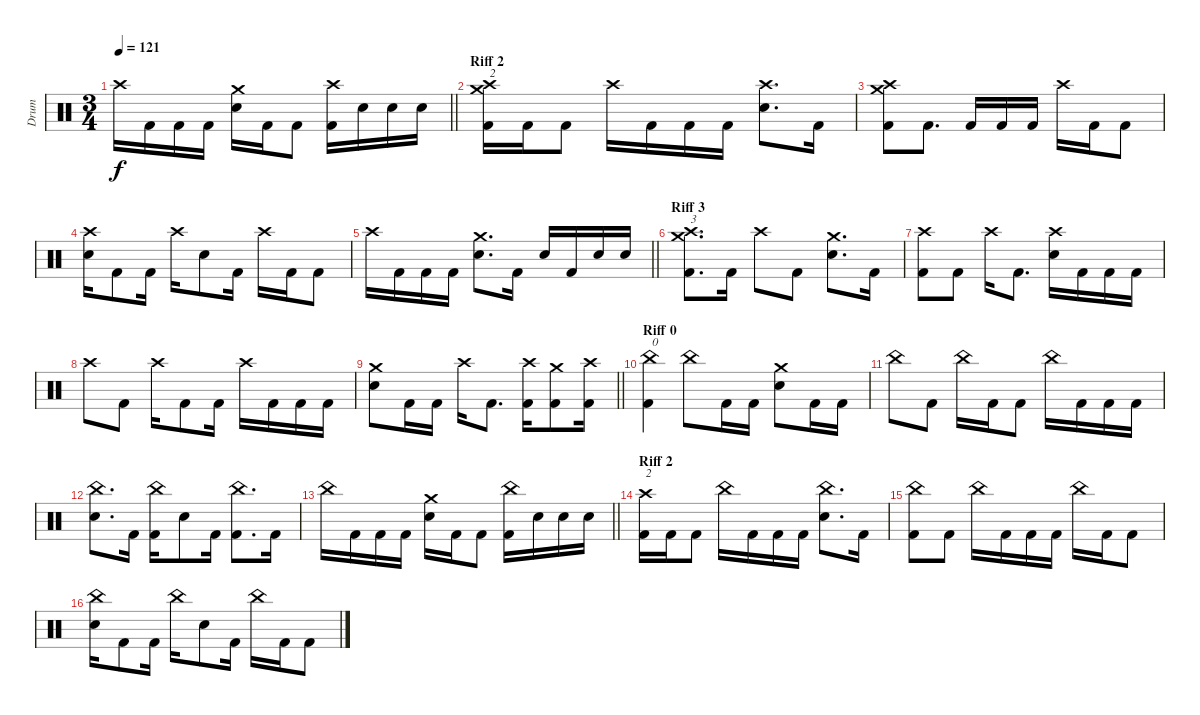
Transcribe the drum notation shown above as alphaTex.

\track ("Drum" "Drum") {instrument percussion}
\staff
\articulation defaults
\ts (3 4)
\tempo 121
\clef neutral
\barLineRight lightlight
\ks c "Crash high (hit)".16{dy f} "Kick (hit) 2".16 "Kick (hit) 2".16 "Kick (hit) 2".16
("Electric Snare (hit)" "Crash medium (hit)").16 "Kick (hit) 2".16 "Kick (hit) 2".8 ("Kick (hit) 2" "Crash high (hit)").16 "Electric Snare (hit)".16 "Electric Snare (hit)".16 "Electric Snare (hit)".16 |
\section ("" "Riff 2")
("Kick (hit) 2" "Crash high (hit)" "Crash medium (hit)").16{txt "2"} "Kick (hit) 2".16 "Kick (hit) 2".8 "Crash high (hit)".16 "Kick (hit) 2".16 "Kick (hit) 2".16 "Kick (hit) 2".16 ("Electric Snare (hit)" "Crash high (hit)").8{d} "Kick (hit) 2".16 |
("Kick (hit) 2" "Crash high (hit)" "Crash medium (hit)").8 "Kick (hit) 2".8{d} "Kick (hit) 2".16 "Kick (hit) 2".16 "Kick (hit) 2".16 "Crash high (hit)".16 "Kick (hit) 2".16 "Kick (hit) 2".8 |
("Electric Snare (hit)" "Crash high (hit)").16 "Kick (hit) 2".8 "Kick (hit) 2".16 "Crash high (hit)".16 "Electric Snare (hit)".8 "Kick (hit) 2".16 "Crash high (hit)".16 "Kick (hit) 2".16 "Kick (hit) 2".8 |
\barLineRight lightlight "Crash high (hit)".16 "Kick (hit) 2".16 "Kick (hit) 2".16 "Kick (hit) 2".16
("Electric Snare (hit)" "Crash medium (hit)").8{d} "Kick (hit) 2".16 "Electric Snare (hit)".16 "Kick (hit) 2".16 "Electric Snare (hit)".16 "Electric Snare (hit)".16 |
\section ("" "Riff 3")
("Kick (hit) 2" "Crash medium (hit)" "Crash high (hit)").8{d txt "3"} "Kick (hit) 2".16 "Crash high (hit)".8 "Kick (hit) 2".8 ("Electric Snare (hit)" "Crash medium (hit)").8{d} "Kick (hit) 2".16 |
("Kick (hit) 2" "Crash high (hit)").8 "Kick (hit) 2".8 "Crash high (hit)".16 "Kick (hit) 2".8{d} ("Electric Snare (hit)" "Crash high (hit)").16 "Kick (hit) 2".16 "Kick (hit) 2".16 "Kick (hit) 2".16 |
"Crash high (hit)".8 "Kick (hit) 2".8 "Crash high (hit)".16 "Kick (hit) 2".8 "Kick (hit) 2".16 "Crash high (hit)".16 "Kick (hit) 2".16 "Kick (hit) 2".16 "Kick (hit) 2".16 |
\barLineRight lightlight
("Electric Snare (hit)" "Crash medium (hit)").8 "Kick (hit) 2".16 "Kick (hit) 2".16 "Crash high (hit)".16 "Kick (hit) 2".8{d} ("Kick (hit) 2" "Crash high (hit)").16 ("Kick (hit) 2" "Crash medium (hit)").8 ("Kick (hit) 2" "Crash high (hit)").16 |
\section ("" "Riff 0")
("Kick (hit) 2" "China (hit)").4{txt "0"} "China (hit)".8 "Kick (hit) 2".16 "Kick (hit) 2".16 ("Electric Snare (hit)" "Crash medium (hit)").8 "Kick (hit) 2".16 "Kick (hit) 2".16 |
"China (hit)".8 "Kick (hit) 2".8 "China (hit)".16 "Kick (hit) 2".16 "Kick (hit) 2".8 "China (hit)".16 "Kick (hit) 2".16 "Kick (hit) 2".16 "Kick (hit) 2".16 |
("Electric Snare (hit)" "China (hit)").8{d} "Kick (hit) 2".16 ("Kick (hit) 2" "China (hit)").16 "Electric Snare (hit)".8 "Kick (hit) 2".16 ("Kick (hit) 2" "China (hit)").8{d} "Kick (hit) 2".16 |
\barLineRight lightlight "China (hit)".16 "Kick (hit) 2".16 "Kick (hit) 2".16 "Kick (hit) 2".16
("Electric Snare (hit)" "Crash medium (hit)").16 "Kick (hit) 2".16 "Kick (hit) 2".8 ("Kick (hit) 2" "China (hit)").16 "Electric Snare (hit)".16 "Electric Snare (hit)".16 "Electric Snare (hit)".16 |
\section ("" "Riff 2")
("Kick (hit) 2" "Crash high (hit)").16{txt "2"} "Kick (hit) 2".16 "Kick (hit) 2".8 "China (hit)".16 "Kick (hit) 2".16 "Kick (hit) 2".16 "Kick (hit) 2".16 ("Electric Snare (hit)" "China (hit)").8{d} "Kick (hit) 2".16 |
("Kick (hit) 2" "China (hit)").8 "Kick (hit) 2".8 "China (hit)".16 "Kick (hit) 2".16 "Kick (hit) 2".16 "Kick (hit) 2".16 "China (hit)".16 "Kick (hit) 2".16 "Kick (hit) 2".8 |
("Electric Snare (hit)" "China (hit)").16 "Kick (hit) 2".8 "Kick (hit) 2".16 "China (hit)".16 "Electric Snare (hit)".8 "Kick (hit) 2".16 "China (hit)".16 "Kick (hit) 2".16 "Kick (hit) 2".8
